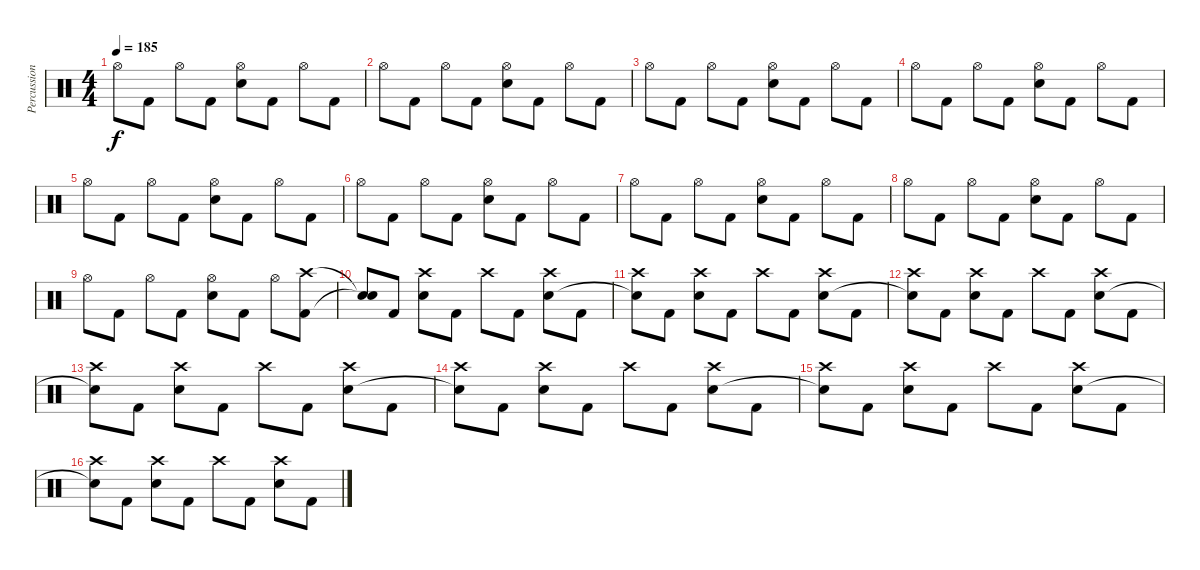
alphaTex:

\track ("Percussion" "Percussion") {instrument percussion}
\staff {score}
\articulation defaults
\ts (4 4)
\tempo 185
\clef neutral
\ks c "Hi-Hat (open)".8{dy f} "Kick (hit) 2".8 "Hi-Hat (open)".8 "Kick (hit) 2".8
("Hi-Hat (open)" "Electric Snare (hit)").8 "Kick (hit) 2".8 "Hi-Hat (open)".8 "Kick (hit) 2".8 |
"Hi-Hat (open)".8 "Kick (hit) 2".8 "Hi-Hat (open)".8 "Kick (hit) 2".8 ("Hi-Hat (open)" "Electric Snare (hit)").8 "Kick (hit) 2".8 "Hi-Hat (open)".8 "Kick (hit) 2".8 |
"Hi-Hat (open)".8 "Kick (hit) 2".8 "Hi-Hat (open)".8 "Kick (hit) 2".8 ("Hi-Hat (open)" "Electric Snare (hit)").8 "Kick (hit) 2".8 "Hi-Hat (open)".8 "Kick (hit) 2".8 |
"Hi-Hat (open)".8 "Kick (hit) 2".8 "Hi-Hat (open)".8 "Kick (hit) 2".8 ("Hi-Hat (open)" "Electric Snare (hit)").8 "Kick (hit) 2".8 "Hi-Hat (open)".8 "Kick (hit) 2".8 |
"Hi-Hat (open)".8 "Kick (hit) 2".8 "Hi-Hat (open)".8 "Kick (hit) 2".8 ("Hi-Hat (open)" "Electric Snare (hit)").8 "Kick (hit) 2".8 "Hi-Hat (open)".8 "Kick (hit) 2".8 |
"Hi-Hat (open)".8 "Kick (hit) 2".8 "Hi-Hat (open)".8 "Kick (hit) 2".8 ("Hi-Hat (open)" "Electric Snare (hit)").8 "Kick (hit) 2".8 "Hi-Hat (open)".8 "Kick (hit) 2".8 |
"Hi-Hat (open)".8 "Kick (hit) 2".8 "Hi-Hat (open)".8 "Kick (hit) 2".8 ("Hi-Hat (open)" "Electric Snare (hit)").8 "Kick (hit) 2".8 "Hi-Hat (open)".8 "Kick (hit) 2".8 |
"Hi-Hat (open)".8 "Kick (hit) 2".8 "Hi-Hat (open)".8 "Kick (hit) 2".8 ("Hi-Hat (open)" "Electric Snare (hit)").8 "Kick (hit) 2".8 "Hi-Hat (open)".8 "Kick (hit) 2".8 |
"Hi-Hat (open)".8 "Kick (hit) 2".8 "Hi-Hat (open)".8 "Kick (hit) 2".8 ("Hi-Hat (open)" "Electric Snare (hit)").8 "Kick (hit) 2".8 "Hi-Hat (open)".8 ("Crash high (hit)" "Kick (hit) 2").8 |
("Snare (hit)"{t} "Snare (hit)"{t}).8 "Kick (hit) 2".8 ("Crash high (hit)" "Electric Snare (hit)").8 "Kick (hit) 2".8 "Crash high (hit)".8 "Kick (hit) 2".8 ("Crash high (hit)" "Electric Snare (hit)").8 "Kick (hit) 2".8 |
("Crash high (hit)" "Snare (hit)"{t}).8 "Kick (hit) 2".8 ("Crash high (hit)" "Electric Snare (hit)").8 "Kick (hit) 2".8 "Crash high (hit)".8 "Kick (hit) 2".8 ("Crash high (hit)" "Electric Snare (hit)").8 "Kick (hit) 2".8 |
("Crash high (hit)" "Snare (hit)"{t}).8 "Kick (hit) 2".8 ("Crash high (hit)" "Electric Snare (hit)").8 "Kick (hit) 2".8 "Crash high (hit)".8 "Kick (hit) 2".8 ("Crash high (hit)" "Electric Snare (hit)").8 "Kick (hit) 2".8 |
("Crash high (hit)" "Snare (hit)"{t}).8 "Kick (hit) 2".8 ("Crash high (hit)" "Electric Snare (hit)").8 "Kick (hit) 2".8 "Crash high (hit)".8 "Kick (hit) 2".8 ("Crash high (hit)" "Electric Snare (hit)").8 "Kick (hit) 2".8 |
("Crash high (hit)" "Snare (hit)"{t}).8 "Kick (hit) 2".8 ("Crash high (hit)" "Electric Snare (hit)").8 "Kick (hit) 2".8 "Crash high (hit)".8 "Kick (hit) 2".8 ("Crash high (hit)" "Electric Snare (hit)").8 "Kick (hit) 2".8 |
("Crash high (hit)" "Snare (hit)"{t}).8 "Kick (hit) 2".8 ("Crash high (hit)" "Electric Snare (hit)").8 "Kick (hit) 2".8 "Crash high (hit)".8 "Kick (hit) 2".8 ("Crash high (hit)" "Electric Snare (hit)").8 "Kick (hit) 2".8 |
("Crash high (hit)" "Snare (hit)"{t}).8 "Kick (hit) 2".8 ("Crash high (hit)" "Electric Snare (hit)").8 "Kick (hit) 2".8 "Crash high (hit)".8 "Kick (hit) 2".8 ("Crash high (hit)" "Electric Snare (hit)").8 "Kick (hit) 2".8
